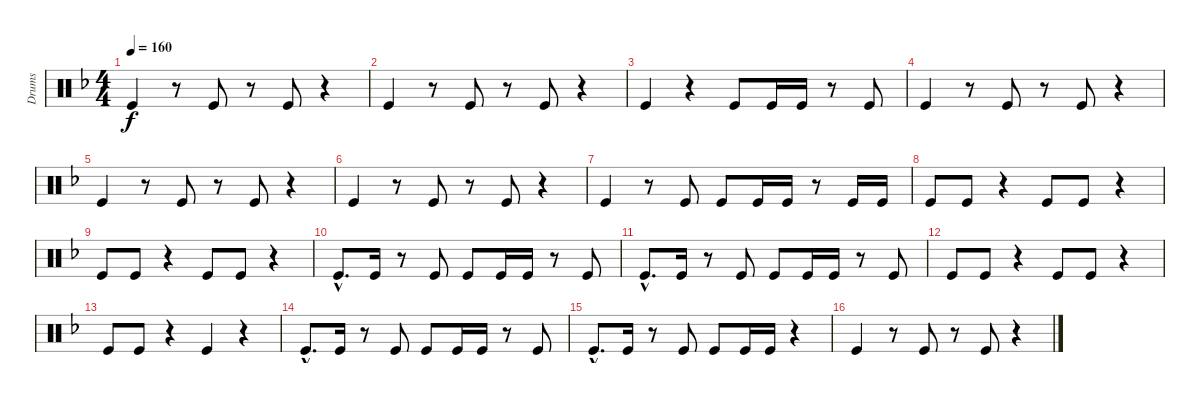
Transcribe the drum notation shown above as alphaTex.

\track ("Drums" "Drums") {instrument percussion}
\staff {score}
\articulation defaults
\ts (4 4)
\tempo 160
\clef neutral
\ks f "Kick (hit)".4{dy f}
r.8 "Kick (hit)".8 r.8 "Kick (hit)".8 r.4 |
"Kick (hit)".4 r.8 "Kick (hit)".8 r.8 "Kick (hit)".8 r.4 |
"Kick (hit)".4 r.4 "Kick (hit)".8 "Kick (hit)".16 "Kick (hit)".16 r.8 "Kick (hit)".8 |
"Kick (hit)".4 r.8 "Kick (hit)".8 r.8 "Kick (hit)".8 r.4 |
"Kick (hit)".4 r.8 "Kick (hit)".8 r.8 "Kick (hit)".8 r.4 |
"Kick (hit)".4 r.8 "Kick (hit)".8 r.8 "Kick (hit)".8 r.4 |
"Kick (hit)".4 r.8 "Kick (hit)".8 "Kick (hit)".8 "Kick (hit)".16 "Kick (hit)".16 r.8 "Kick (hit)".16 "Kick (hit)".16 |
"Kick (hit)".8 "Kick (hit)".8 r.4 "Kick (hit)".8 "Kick (hit)".8 r.4 |
"Kick (hit)".8 "Kick (hit)".8 r.4 "Kick (hit)".8 "Kick (hit)".8 r.4 |
"Kick (hit)"{hac}.8{d} "Kick (hit)".16 r.8 "Kick (hit)".8 "Kick (hit)".8 "Kick (hit)".16 "Kick (hit)".16 r.8 "Kick (hit)".8 |
"Kick (hit)"{hac}.8{d} "Kick (hit)".16 r.8 "Kick (hit)".8 "Kick (hit)".8 "Kick (hit)".16 "Kick (hit)".16 r.8 "Kick (hit)".8 |
"Kick (hit)".8 "Kick (hit)".8 r.4 "Kick (hit)".8 "Kick (hit)".8 r.4 |
"Kick (hit)".8 "Kick (hit)".8 r.4 "Kick (hit)".4 r.4 |
"Kick (hit)"{hac}.8{d} "Kick (hit)".16 r.8 "Kick (hit)".8 "Kick (hit)".8 "Kick (hit)".16 "Kick (hit)".16 r.8 "Kick (hit)".8 |
"Kick (hit)"{hac}.8{d} "Kick (hit)".16 r.8 "Kick (hit)".8 "Kick (hit)".8 "Kick (hit)".16 "Kick (hit)".16 r.4 |
"Kick (hit)".4 r.8 "Kick (hit)".8 r.8 "Kick (hit)".8 r.4
